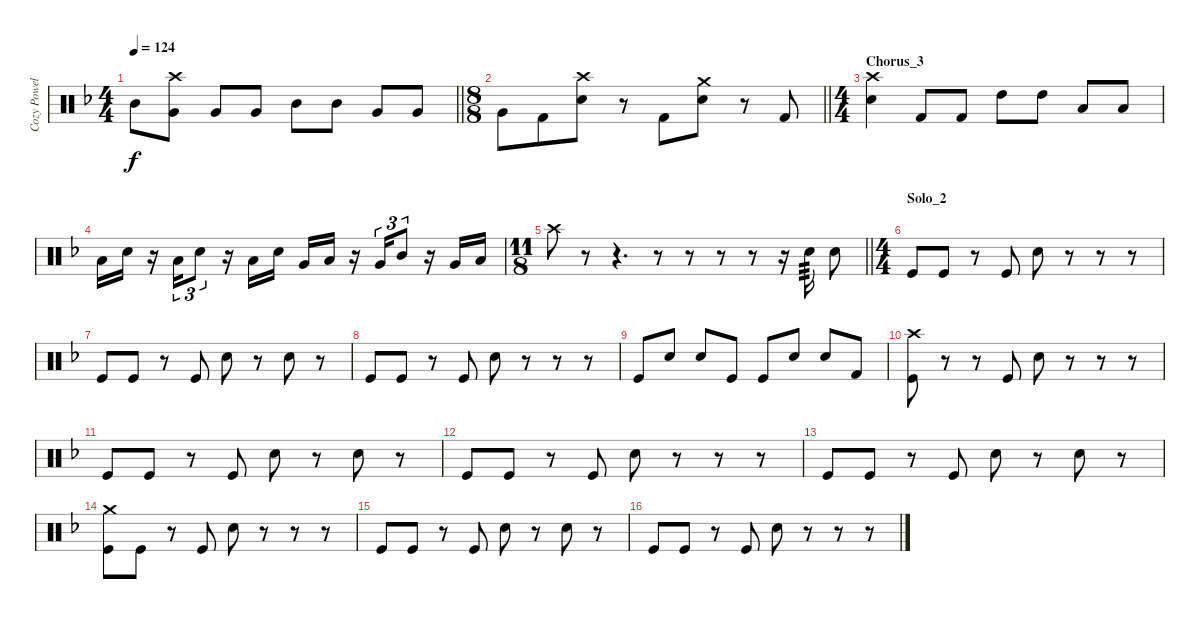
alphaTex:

\track ("Cozy Powell" "Cozy Powel") {instrument percussion}
\staff {score}
\articulation defaults
\ts (4 4)
\tempo 124
\clef neutral
\barLineRight lightlight
\ks f "Mid Tom (hit)".8{dy f}
("Very Low Tom (hit)" "Crash high (hit)").8 "Very Low Tom (hit)".8 "Very Low Tom (hit)".8 "Mid Tom (hit)".8 "Mid Tom (hit)".8 "Very Low Tom (hit)".8 "Very Low Tom (hit)".8 |
\ts (8 8)
\barLineRight lightlight "Very Low Tom (hit)".8 "Kick (hit) 2".8
("Snare (hit) 2" "Crash high (hit)").8 r.8 "Kick (hit) 2".8 ("Snare (hit) 2" "Crash medium (hit)").8 r.8 "Kick (hit) 2".8 |
\ts (4 4)
\section ("" "Chorus_3")
("Snare (hit) 2" "Crash high (hit)").4 "Kick (hit) 2".8 "Kick (hit) 2".8 "High Tom (hit)".8 "High Tom (hit)".8 "Low Tom (hit)".8 "Low Tom (hit)".8 |
"Low Tom (hit)".16 "Snare (hit) 2".16 r.16 "Low Tom (hit)".16{tu (3 2)} "Snare (hit) 2".8{tu (3 2)} r.16 "Low Tom (hit)".16 "Snare (hit) 2".16 "Very Low Tom (hit)".16 "Low Tom (hit)".16 r.16 "Very Low Tom (hit)".16{tu (3 2)} "Mid Tom (hit)".8{tu (3 2)} r.16 "Very Low Tom (hit)".16 "Low Tom (hit)".16 |
\ts (11 8)
\barLineRight lightlight "Crash high (hit)".8
r.8{volume 0} r.4{d} r.8 r.8 r.8 r.8{volume 13} r.16 "Snare (hit) 2".16{tp 3} "Snare (hit) 2".8 |
\ts (4 4)
\section ("" "Solo_2")
"Kick (hit)".8 "Kick (hit)".8 r.8 "Kick (hit)".8 "Snare (hit) 2".8 r.8 r.8 r.8 |
"Kick (hit)".8 "Kick (hit)".8 r.8 "Kick (hit)".8 "Snare (hit) 2".8 r.8 "Snare (hit) 2".8 r.8 |
"Kick (hit)".8 "Kick (hit)".8 r.8 "Kick (hit)".8 "Snare (hit) 2".8 r.8 r.8 r.8 |
"Kick (hit)".8 "Snare (hit) 2".8 "Snare (hit) 2".8 "Kick (hit)".8 "Kick (hit)".8 "Snare (hit) 2".8 "Snare (hit) 2".8 "Kick (hit) 2".8 |
("Kick (hit)" "Crash high (hit)").8 r.8 r.8 "Kick (hit)".8 "Snare (hit) 2".8 r.8 r.8 r.8 |
"Kick (hit)".8 "Kick (hit)".8 r.8 "Kick (hit)".8 "Snare (hit) 2".8 r.8 "Snare (hit) 2".8 r.8 |
"Kick (hit)".8 "Kick (hit)".8 r.8 "Kick (hit)".8 "Snare (hit) 2".8 r.8 r.8 r.8 |
"Kick (hit)".8 "Kick (hit)".8 r.8 "Kick (hit)".8 "Snare (hit) 2".8 r.8 "Snare (hit) 2".8 r.8 |
("Kick (hit)" "Crash medium (hit)").8 "Kick (hit)".8 r.8 "Kick (hit)".8 "Snare (hit) 2".8 r.8 r.8 r.8 |
"Kick (hit)".8 "Kick (hit)".8 r.8 "Kick (hit)".8 "Snare (hit) 2".8 r.8 "Snare (hit) 2".8 r.8 |
"Kick (hit)".8 "Kick (hit)".8 r.8 "Kick (hit)".8 "Snare (hit) 2".8 r.8 r.8 r.8
